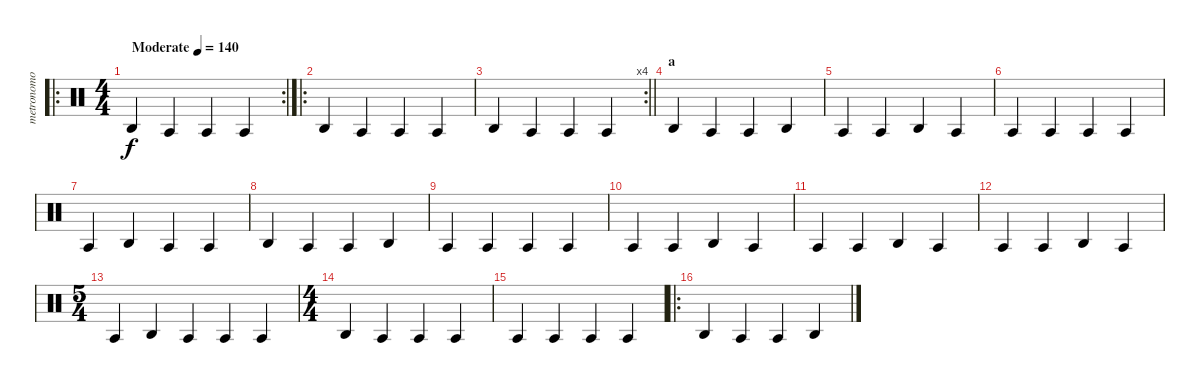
\track ("metronomo" "metronomo") {mute instrument percussion}
\staff {score}
\articulation defaults
\ro
\rc 2
\ts (4 4)
\tempo (140 "Moderate")
\clef neutral
\ks c "Agogo high (hit)".4{dy f} "Agogo tow (hit)".4 "Agogo tow (hit)".4 "Agogo tow (hit)".4
|
\ro "Agogo high (hit)".4 "Agogo tow (hit)".4 "Agogo tow (hit)".4 "Agogo tow (hit)".4
|
\rc 4
\barLineRight lightlight "Agogo high (hit)".4 "Agogo tow (hit)".4 "Agogo tow (hit)".4 "Agogo tow (hit)".4
|
\section ("" "a")
"Agogo high (hit)".4 "Agogo tow (hit)".4 "Agogo tow (hit)".4 "Agogo high (hit)".4 |
"Agogo tow (hit)".4 "Agogo tow (hit)".4 "Agogo high (hit)".4 "Agogo tow (hit)".4 |
"Agogo tow (hit)".4 "Agogo tow (hit)".4 "Agogo tow (hit)".4 "Agogo tow (hit)".4 |
"Agogo tow (hit)".4 "Agogo high (hit)".4 "Agogo tow (hit)".4 "Agogo tow (hit)".4 |
"Agogo high (hit)".4 "Agogo tow (hit)".4 "Agogo tow (hit)".4 "Agogo high (hit)".4 |
"Agogo tow (hit)".4 "Agogo tow (hit)".4 "Agogo tow (hit)".4 "Agogo tow (hit)".4 |
"Agogo tow (hit)".4 "Agogo tow (hit)".4 "Agogo high (hit)".4 "Agogo tow (hit)".4 |
"Agogo tow (hit)".4 "Agogo tow (hit)".4 "Agogo high (hit)".4 "Agogo tow (hit)".4 |
"Agogo tow (hit)".4 "Agogo tow (hit)".4 "Agogo high (hit)".4 "Agogo tow (hit)".4 |
\ts (5 4)
"Agogo tow (hit)".4 "Agogo high (hit)".4 "Agogo tow (hit)".4 "Agogo tow (hit)".4 "Agogo tow (hit)".4 |
\ts (4 4)
"Agogo high (hit)".4 "Agogo tow (hit)".4 "Agogo tow (hit)".4 "Agogo tow (hit)".4 |
"Agogo tow (hit)".4 "Agogo tow (hit)".4 "Agogo tow (hit)".4 "Agogo tow (hit)".4 |
\ro "Agogo high (hit)".4 "Agogo tow (hit)".4 "Agogo tow (hit)".4 "Agogo high (hit)".4
